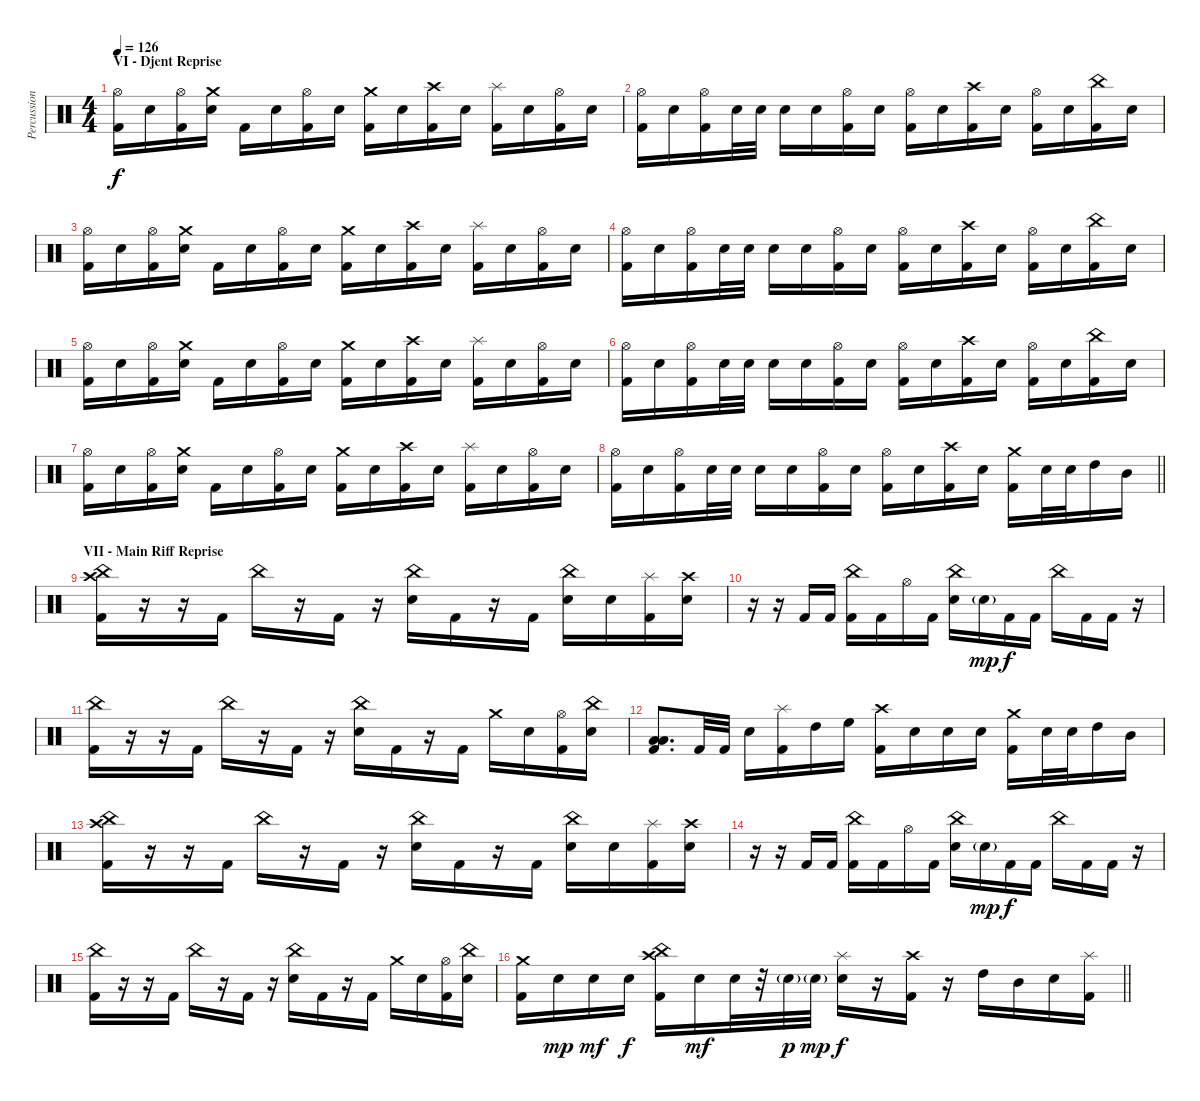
\track ("Percussion" "Percussion") {instrument percussion}
\staff {score}
\articulation defaults
\ts (4 4)
\section ("" "VI - Djent Reprise")
\tempo 126
\clef neutral
\ks c
("Hi-Hat (open)" "Kick (hit) 2").16{dy f} "Snare (hit) 2".16 ("Hi-Hat (open)" "Kick (hit) 2").16 ("Crash medium (hit)" "Snare (hit) 2").16 "Kick (hit) 2".16 "Snare (hit) 2".16 ("Hi-Hat (open)" "Kick (hit) 2").16 "Snare (hit) 2".16 ("Crash medium (hit)" "Kick (hit) 2").16 "Snare (hit) 2".16 ("Crash high (hit)" "Kick (hit) 2").16 "Snare (hit) 2".16 ("Splash (hit)" "Kick (hit) 2").16 "Snare (hit) 2".16 ("Hi-Hat (open)" "Kick (hit) 2").16 "Snare (hit) 2".16 |
("Hi-Hat (open)" "Kick (hit) 2").16 "Snare (hit) 2".16 ("Hi-Hat (open)" "Kick (hit) 2").16 "Snare (hit) 2".32 "Snare (hit) 2".32 "Snare (hit) 2".16 "Snare (hit) 2".16 ("Hi-Hat (open)" "Kick (hit) 2").16 "Snare (hit) 2".16 ("Hi-Hat (open)" "Kick (hit) 2").16 "Snare (hit) 2".16 ("Crash high (hit)" "Kick (hit) 2").16 "Snare (hit) 2".16 ("Hi-Hat (open)" "Kick (hit) 2").16 "Snare (hit) 2".16 ("China (hit)" "Kick (hit) 2").16 "Snare (hit) 2".16 |
("Hi-Hat (open)" "Kick (hit) 2").16 "Snare (hit) 2".16 ("Hi-Hat (open)" "Kick (hit) 2").16 ("Crash medium (hit)" "Snare (hit) 2").16 "Kick (hit) 2".16 "Snare (hit) 2".16 ("Hi-Hat (open)" "Kick (hit) 2").16 "Snare (hit) 2".16 ("Crash medium (hit)" "Kick (hit) 2").16 "Snare (hit) 2".16 ("Crash high (hit)" "Kick (hit) 2").16 "Snare (hit) 2".16 ("Splash (hit)" "Kick (hit) 2").16 "Snare (hit) 2".16 ("Hi-Hat (open)" "Kick (hit) 2").16 "Snare (hit) 2".16 |
("Hi-Hat (open)" "Kick (hit) 2").16 "Snare (hit) 2".16 ("Hi-Hat (open)" "Kick (hit) 2").16 "Snare (hit) 2".32 "Snare (hit) 2".32 "Snare (hit) 2".16 "Snare (hit) 2".16 ("Hi-Hat (open)" "Kick (hit) 2").16 "Snare (hit) 2".16 ("Hi-Hat (open)" "Kick (hit) 2").16 "Snare (hit) 2".16 ("Crash high (hit)" "Kick (hit) 2").16 "Snare (hit) 2".16 ("Hi-Hat (open)" "Kick (hit) 2").16 "Snare (hit) 2".16 ("China (hit)" "Kick (hit) 2").16 "Snare (hit) 2".16 |
("Hi-Hat (open)" "Kick (hit) 2").16 "Snare (hit) 2".16 ("Hi-Hat (open)" "Kick (hit) 2").16 ("Crash medium (hit)" "Snare (hit) 2").16 "Kick (hit) 2".16 "Snare (hit) 2".16 ("Hi-Hat (open)" "Kick (hit) 2").16 "Snare (hit) 2".16 ("Crash medium (hit)" "Kick (hit) 2").16 "Snare (hit) 2".16 ("Crash high (hit)" "Kick (hit) 2").16 "Snare (hit) 2".16 ("Splash (hit)" "Kick (hit) 2").16 "Snare (hit) 2".16 ("Hi-Hat (open)" "Kick (hit) 2").16 "Snare (hit) 2".16 |
("Hi-Hat (open)" "Kick (hit) 2").16 "Snare (hit) 2".16 ("Hi-Hat (open)" "Kick (hit) 2").16 "Snare (hit) 2".32 "Snare (hit) 2".32 "Snare (hit) 2".16 "Snare (hit) 2".16 ("Hi-Hat (open)" "Kick (hit) 2").16 "Snare (hit) 2".16 ("Hi-Hat (open)" "Kick (hit) 2").16 "Snare (hit) 2".16 ("Crash high (hit)" "Kick (hit) 2").16 "Snare (hit) 2".16 ("Hi-Hat (open)" "Kick (hit) 2").16 "Snare (hit) 2".16 ("China (hit)" "Kick (hit) 2").16 "Snare (hit) 2".16 |
("Hi-Hat (open)" "Kick (hit) 2").16 "Snare (hit) 2".16 ("Hi-Hat (open)" "Kick (hit) 2").16 ("Crash medium (hit)" "Snare (hit) 2").16 "Kick (hit) 2".16 "Snare (hit) 2".16 ("Hi-Hat (open)" "Kick (hit) 2").16 "Snare (hit) 2".16 ("Crash medium (hit)" "Kick (hit) 2").16 "Snare (hit) 2".16 ("Crash high (hit)" "Kick (hit) 2").16 "Snare (hit) 2".16 ("Splash (hit)" "Kick (hit) 2").16 "Snare (hit) 2".16 ("Hi-Hat (open)" "Kick (hit) 2").16 "Snare (hit) 2".16 |
\barLineRight lightlight
("Hi-Hat (open)" "Kick (hit) 2").16 "Snare (hit) 2".16 ("Hi-Hat (open)" "Kick (hit) 2").16 "Snare (hit) 2".32 "Snare (hit) 2".32 "Snare (hit) 2".16 "Snare (hit) 2".16 ("Hi-Hat (open)" "Kick (hit) 2").16 "Snare (hit) 2".16 ("Hi-Hat (open)" "Kick (hit) 2").16 "Snare (hit) 2".16 ("Crash high (hit)" "Kick (hit) 2").16 "Snare (hit) 2".16 ("Crash medium (hit)" "Kick (hit) 2").16 "Snare (hit) 2".32 "Snare (hit) 2".32 "High Tom (hit)".16 "Mid Tom (hit)".16 |
\section ("" "VII - Main Riff Reprise")
("China (hit)" "Crash high (hit)" "Kick (hit) 2").16 r.16 r.16 "Kick (hit) 2".16 "China (hit)".16 r.16 "Kick (hit) 2".16 r.16 ("China (hit)" "Snare (hit) 2").16 "Kick (hit) 2".16 r.16 "Kick (hit) 2".16 ("China (hit)" "Snare (hit) 2").16 "Snare (hit) 2".16 ("Splash (hit)" "Kick (hit) 2").16 ("Crash high (hit)" "Snare (hit) 2").16 |
r.16 r.16 "Kick (hit) 2".16 "Kick (hit) 2".16 ("China (hit)" "Kick (hit) 2").16 "Kick (hit) 2".16 "Hi-Hat (open)".16 "Kick (hit) 2".16 ("China (hit)" "Snare (hit) 2").16 "Snare (hit) 2"{g}.16{dy mp} "Kick (hit) 2".16{dy f} "Kick (hit) 2".16 "China (hit)".16 "Kick (hit) 2".16 "Kick (hit) 2".16 r.16 |
("China (hit)" "Kick (hit) 2").16 r.16 r.16 "Kick (hit) 2".16 "China (hit)".16 r.16 "Kick (hit) 2".16 r.16 ("China (hit)" "Snare (hit) 2").16 "Kick (hit) 2".16 r.16 "Kick (hit) 2".16 "Crash medium (hit)".16 "Snare (hit) 2".16 ("Hi-Hat (open)" "Kick (hit) 2").16 ("China (hit)" "Snare (hit) 2").16 |
("Low Tom (hit)" "Low Floor Tom (hit)" "Kick (hit) 2").8{d} "Kick (hit) 2".32 "Kick (hit) 2".32 "Snare (hit) 2".16 ("Splash (hit)" "Kick (hit) 2").16 "High Tom (hit)".16 "High Floor Tom (hit)".16 ("Crash high (hit)" "Kick (hit) 2").16 "Snare (hit) 2".16 "Snare (hit) 2".16 "Snare (hit) 2".16 ("Crash medium (hit)" "Kick (hit) 2").16 "Snare (hit) 2".32 "Snare (hit) 2".32 "High Tom (hit)".16 "Mid Tom (hit)".16 |
("China (hit)" "Crash high (hit)" "Kick (hit) 2").16 r.16 r.16 "Kick (hit) 2".16 "China (hit)".16 r.16 "Kick (hit) 2".16 r.16 ("China (hit)" "Snare (hit) 2").16 "Kick (hit) 2".16 r.16 "Kick (hit) 2".16 ("China (hit)" "Snare (hit) 2").16 "Snare (hit) 2".16 ("Splash (hit)" "Kick (hit) 2").16 ("Crash high (hit)" "Snare (hit) 2").16 |
r.16 r.16 "Kick (hit) 2".16 "Kick (hit) 2".16 ("China (hit)" "Kick (hit) 2").16 "Kick (hit) 2".16 "Hi-Hat (open)".16 "Kick (hit) 2".16 ("China (hit)" "Snare (hit) 2").16 "Snare (hit) 2"{g}.16{dy mp} "Kick (hit) 2".16{dy f} "Kick (hit) 2".16 "China (hit)".16 "Kick (hit) 2".16 "Kick (hit) 2".16 r.16 |
("China (hit)" "Kick (hit) 2").16 r.16 r.16 "Kick (hit) 2".16 "China (hit)".16 r.16 "Kick (hit) 2".16 r.16 ("China (hit)" "Snare (hit) 2").16 "Kick (hit) 2".16 r.16 "Kick (hit) 2".16 "Crash medium (hit)".16 "Snare (hit) 2".16 ("Hi-Hat (open)" "Kick (hit) 2").16 ("China (hit)" "Snare (hit) 2").16 |
\barLineRight lightlight
("Crash medium (hit)" "Kick (hit) 2").16 "Snare (hit) 2".16{dy mp} "Snare (hit) 2".16{dy mf} "Snare (hit) 2".16{dy f} ("China (hit)" "Crash high (hit)" "Kick (hit) 2").16 "Snare (hit) 2".16{dy mf} "Snare (hit) 2".32 r.32 "Snare (hit) 2"{g}.32{dy p} "Snare (hit) 2"{g}.32{dy mp} ("Splash (hit)" "Snare (hit) 2").16{dy f} r.16 ("Crash high (hit)" "Kick (hit) 2").16 r.16 "High Tom (hit)".16 "Mid Tom (hit)".16 "Snare (hit) 2".16 ("Splash (hit)" "Kick (hit) 2").16
